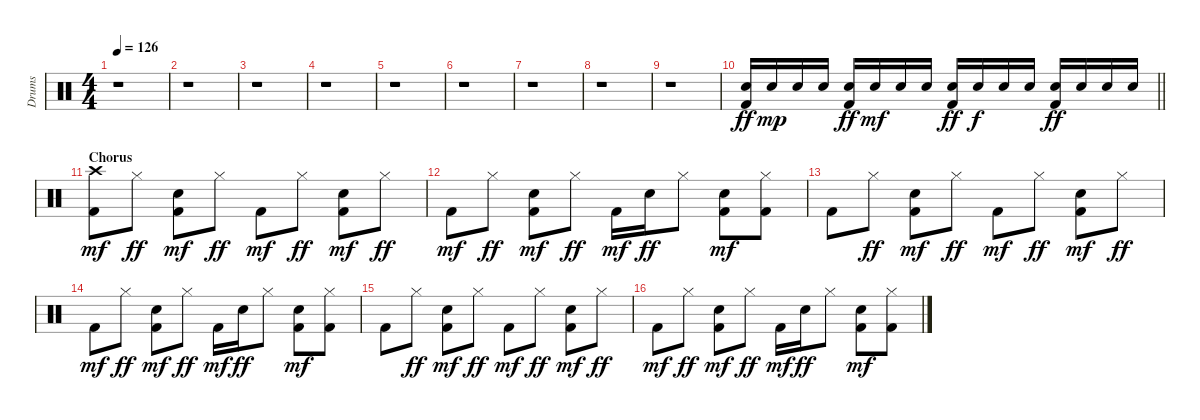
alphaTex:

\track ("Drums" "Drums") {instrument percussion}
\staff {score}
\articulation defaults
\ts (4 4)
\tempo 126
\clef neutral
\ks c
r.1{dy f} |
r.1 |
r.1 |
r.1 |
r.1 |
r.1 |
r.1 |
r.1 |
r.1 |
\barLineRight lightlight
("Snare (hit) 2" "Kick (hit) 2").16{dy ff} "Snare (hit) 2".16{dy mp} "Snare (hit) 2".16 "Snare (hit) 2".16 ("Snare (hit) 2" "Kick (hit) 2").16{dy ff} "Snare (hit) 2".16{dy mf} "Snare (hit) 2".16 "Snare (hit) 2".16 ("Snare (hit) 2" "Kick (hit) 2").16{dy ff} "Snare (hit) 2".16{dy f} "Snare (hit) 2".16 "Snare (hit) 2".16 ("Snare (hit) 2" "Kick (hit) 2").16{dy ff} "Snare (hit) 2".16 "Snare (hit) 2".16 "Snare (hit) 2".16 |
\section ("" "Chorus")
("Crash high (hit)" "Kick (hit) 2").8{dy mf} "Hi-Hat (closed)".8{dy ff} ("Electric Snare (hit)" "Kick (hit) 2").8{dy mf} "Hi-Hat (closed)".8{dy ff} "Kick (hit) 2".8{dy mf} "Hi-Hat (closed)".8{dy ff} ("Electric Snare (hit)" "Kick (hit) 2").8{dy mf} "Hi-Hat (closed)".8{dy ff} |
"Kick (hit) 2".8{dy mf} "Hi-Hat (closed)".8{dy ff} ("Electric Snare (hit)" "Kick (hit) 2").8{dy mf} "Hi-Hat (closed)".8{dy ff} "Kick (hit) 2".16{dy mf} "Electric Snare (hit)".16{dy ff} "Hi-Hat (closed)".8 ("Electric Snare (hit)" "Kick (hit) 2").8{dy mf} ("Hi-Hat (closed)" "Kick (hit) 2").8 |
"Kick (hit) 2".8 "Hi-Hat (closed)".8{dy ff} ("Electric Snare (hit)" "Kick (hit) 2").8{dy mf} "Hi-Hat (closed)".8{dy ff} "Kick (hit) 2".8{dy mf} "Hi-Hat (closed)".8{dy ff} ("Electric Snare (hit)" "Kick (hit) 2").8{dy mf} "Hi-Hat (closed)".8{dy ff} |
"Kick (hit) 2".8{dy mf} "Hi-Hat (closed)".8{dy ff} ("Electric Snare (hit)" "Kick (hit) 2").8{dy mf} "Hi-Hat (closed)".8{dy ff} "Kick (hit) 2".16{dy mf} "Electric Snare (hit)".16{dy ff} "Hi-Hat (closed)".8 ("Electric Snare (hit)" "Kick (hit) 2").8{dy mf} ("Hi-Hat (closed)" "Kick (hit) 2").8 |
"Kick (hit) 2".8 "Hi-Hat (closed)".8{dy ff} ("Electric Snare (hit)" "Kick (hit) 2").8{dy mf} "Hi-Hat (closed)".8{dy ff} "Kick (hit) 2".8{dy mf} "Hi-Hat (closed)".8{dy ff} ("Electric Snare (hit)" "Kick (hit) 2").8{dy mf} "Hi-Hat (closed)".8{dy ff} |
"Kick (hit) 2".8{dy mf} "Hi-Hat (closed)".8{dy ff} ("Electric Snare (hit)" "Kick (hit) 2").8{dy mf} "Hi-Hat (closed)".8{dy ff} "Kick (hit) 2".16{dy mf} "Electric Snare (hit)".16{dy ff} "Hi-Hat (closed)".8 ("Electric Snare (hit)" "Kick (hit) 2").8{dy mf} ("Hi-Hat (closed)" "Kick (hit) 2").8
